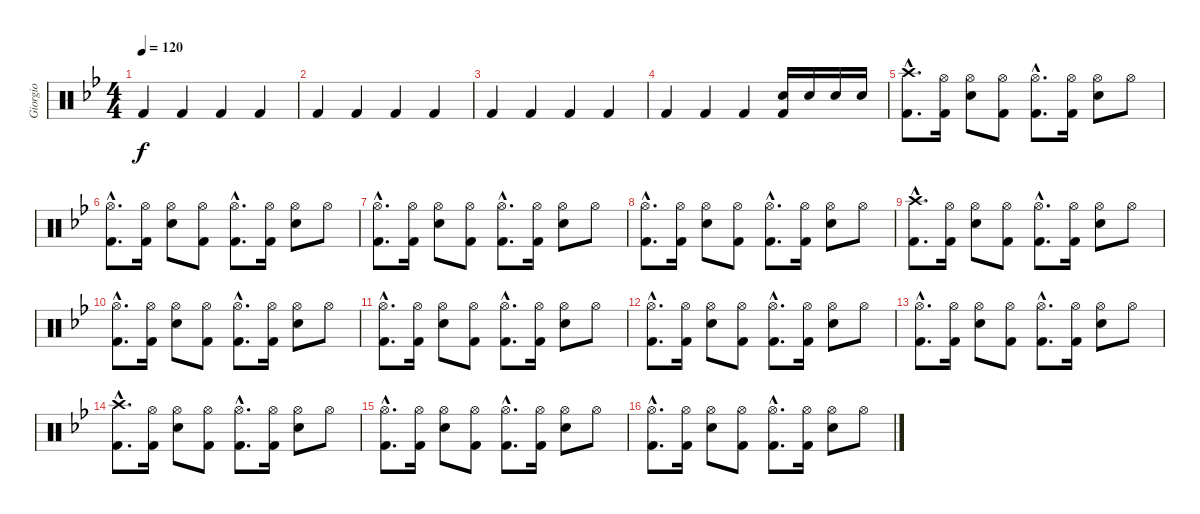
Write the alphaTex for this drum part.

\track ("Giorgio" "Giorgio") {instrument percussion}
\staff {score}
\articulation defaults
\ts (4 4)
\tempo 120
\clef neutral
\ks gminor "Kick (hit) 2".4{dy f} "Kick (hit) 2".4 "Kick (hit) 2".4 "Kick (hit) 2".4
|
"Kick (hit) 2".4 "Kick (hit) 2".4 "Kick (hit) 2".4 "Kick (hit) 2".4 |
"Kick (hit) 2".4 "Kick (hit) 2".4 "Kick (hit) 2".4 "Kick (hit) 2".4 |
"Kick (hit) 2".4 "Kick (hit) 2".4 "Kick (hit) 2".4 ("Snare (hit) 2" "Kick (hit) 2").16 "Snare (hit) 2".16 "Snare (hit) 2".16 "Snare (hit) 2".16 |
("Crash high (hit)"{hac} "Kick (hit) 2"{hac}).8{d} ("Kick (hit) 2" "Hi-Hat (open)").16 ("Hi-Hat (open)" "Snare (hit) 2").8 ("Hi-Hat (open)" "Kick (hit) 2").8 ("Hi-Hat (open)"{hac} "Kick (hit) 2"{hac}).8{d} ("Hi-Hat (open)" "Kick (hit) 2").16 ("Hi-Hat (open)" "Snare (hit) 2").8 "Hi-Hat (open)".8 |
("Hi-Hat (open)"{hac} "Kick (hit) 2"{hac}).8{d} ("Kick (hit) 2" "Hi-Hat (open)").16 ("Hi-Hat (open)" "Snare (hit) 2").8 ("Hi-Hat (open)" "Kick (hit) 2").8 ("Hi-Hat (open)"{hac} "Kick (hit) 2"{hac}).8{d} ("Hi-Hat (open)" "Kick (hit) 2").16 ("Hi-Hat (open)" "Snare (hit) 2").8 "Hi-Hat (open)".8 |
("Hi-Hat (open)"{hac} "Kick (hit) 2"{hac}).8{d} ("Kick (hit) 2" "Hi-Hat (open)").16 ("Hi-Hat (open)" "Snare (hit) 2").8 ("Hi-Hat (open)" "Kick (hit) 2").8 ("Hi-Hat (open)"{hac} "Kick (hit) 2"{hac}).8{d} ("Hi-Hat (open)" "Kick (hit) 2").16 ("Hi-Hat (open)" "Snare (hit) 2").8 "Hi-Hat (open)".8 |
("Hi-Hat (open)"{hac} "Kick (hit) 2"{hac}).8{d} ("Kick (hit) 2" "Hi-Hat (open)").16 ("Hi-Hat (open)" "Snare (hit) 2").8 ("Hi-Hat (open)" "Kick (hit) 2").8 ("Hi-Hat (open)"{hac} "Kick (hit) 2"{hac}).8{d} ("Hi-Hat (open)" "Kick (hit) 2").16 ("Hi-Hat (open)" "Snare (hit) 2").8 "Hi-Hat (open)".8 |
("Crash high (hit)"{hac} "Kick (hit) 2"{hac}).8{d} ("Kick (hit) 2" "Hi-Hat (open)").16 ("Hi-Hat (open)" "Snare (hit) 2").8 ("Hi-Hat (open)" "Kick (hit) 2").8 ("Hi-Hat (open)"{hac} "Kick (hit) 2"{hac}).8{d} ("Hi-Hat (open)" "Kick (hit) 2").16 ("Hi-Hat (open)" "Snare (hit) 2").8 "Hi-Hat (open)".8 |
("Hi-Hat (open)"{hac} "Kick (hit) 2"{hac}).8{d} ("Kick (hit) 2" "Hi-Hat (open)").16 ("Hi-Hat (open)" "Snare (hit) 2").8 ("Hi-Hat (open)" "Kick (hit) 2").8 ("Hi-Hat (open)"{hac} "Kick (hit) 2"{hac}).8{d} ("Hi-Hat (open)" "Kick (hit) 2").16 ("Hi-Hat (open)" "Snare (hit) 2").8 "Hi-Hat (open)".8 |
("Hi-Hat (open)"{hac} "Kick (hit) 2"{hac}).8{d} ("Kick (hit) 2" "Hi-Hat (open)").16 ("Hi-Hat (open)" "Snare (hit) 2").8 ("Hi-Hat (open)" "Kick (hit) 2").8 ("Hi-Hat (open)"{hac} "Kick (hit) 2"{hac}).8{d} ("Hi-Hat (open)" "Kick (hit) 2").16 ("Hi-Hat (open)" "Snare (hit) 2").8 "Hi-Hat (open)".8 |
("Hi-Hat (open)"{hac} "Kick (hit) 2"{hac}).8{d} ("Kick (hit) 2" "Hi-Hat (open)").16 ("Hi-Hat (open)" "Snare (hit) 2").8 ("Hi-Hat (open)" "Kick (hit) 2").8 ("Hi-Hat (open)"{hac} "Kick (hit) 2"{hac}).8{d} ("Hi-Hat (open)" "Kick (hit) 2").16 ("Hi-Hat (open)" "Snare (hit) 2").8 "Hi-Hat (open)".8 |
("Hi-Hat (open)"{hac} "Kick (hit) 2"{hac}).8{d} ("Kick (hit) 2" "Hi-Hat (open)").16 ("Hi-Hat (open)" "Snare (hit) 2").8 ("Hi-Hat (open)" "Kick (hit) 2").8 ("Hi-Hat (open)"{hac} "Kick (hit) 2"{hac}).8{d} ("Hi-Hat (open)" "Kick (hit) 2").16 ("Hi-Hat (open)" "Snare (hit) 2").8 "Hi-Hat (open)".8 |
("Crash high (hit)"{hac} "Kick (hit) 2"{hac}).8{d} ("Kick (hit) 2" "Hi-Hat (open)").16 ("Hi-Hat (open)" "Snare (hit) 2").8 ("Hi-Hat (open)" "Kick (hit) 2").8 ("Hi-Hat (open)"{hac} "Kick (hit) 2"{hac}).8{d} ("Hi-Hat (open)" "Kick (hit) 2").16 ("Hi-Hat (open)" "Snare (hit) 2").8 "Hi-Hat (open)".8 |
("Hi-Hat (open)"{hac} "Kick (hit) 2"{hac}).8{d} ("Kick (hit) 2" "Hi-Hat (open)").16 ("Hi-Hat (open)" "Snare (hit) 2").8 ("Hi-Hat (open)" "Kick (hit) 2").8 ("Hi-Hat (open)"{hac} "Kick (hit) 2"{hac}).8{d} ("Hi-Hat (open)" "Kick (hit) 2").16 ("Hi-Hat (open)" "Snare (hit) 2").8 "Hi-Hat (open)".8 |
("Hi-Hat (open)"{hac} "Kick (hit) 2"{hac}).8{d} ("Kick (hit) 2" "Hi-Hat (open)").16 ("Hi-Hat (open)" "Snare (hit) 2").8 ("Hi-Hat (open)" "Kick (hit) 2").8 ("Hi-Hat (open)"{hac} "Kick (hit) 2"{hac}).8{d} ("Hi-Hat (open)" "Kick (hit) 2").16 ("Hi-Hat (open)" "Snare (hit) 2").8 "Hi-Hat (open)".8
